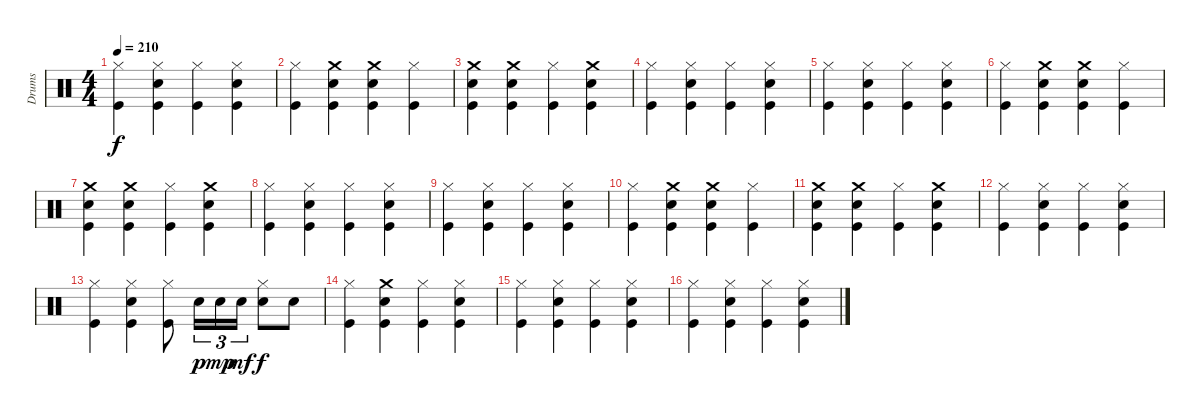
\track ("Drums" "Drums") {instrument percussion}
\staff {score}
\articulation defaults
\ts (4 4)
\tempo 210
\clef neutral
\ks c
("Hi-Hat (closed)" "Kick (hit)").4{dy f} ("Hi-Hat (closed)" "Snare (hit) 2" "Kick (hit)").4 ("Hi-Hat (closed)" "Kick (hit)").4 ("Hi-Hat (closed)" "Snare (hit) 2" "Kick (hit)").4 |
("Hi-Hat (closed)" "Kick (hit)").4 ("Crash medium (hit)" "Snare (hit) 2" "Kick (hit)").4 ("Crash medium (hit)" "Snare (hit) 2" "Kick (hit)").4 ("Hi-Hat (closed)" "Kick (hit)").4 |
("Crash medium (hit)" "Snare (hit) 2" "Kick (hit)").4 ("Crash medium (hit)" "Snare (hit) 2" "Kick (hit)").4 ("Hi-Hat (closed)" "Kick (hit)").4 ("Crash medium (hit)" "Snare (hit) 2" "Kick (hit)").4 |
("Hi-Hat (closed)" "Kick (hit)").4 ("Hi-Hat (closed)" "Snare (hit) 2" "Kick (hit)").4 ("Hi-Hat (closed)" "Kick (hit)").4 ("Hi-Hat (closed)" "Snare (hit) 2" "Kick (hit)").4 |
("Hi-Hat (closed)" "Kick (hit)").4 ("Hi-Hat (closed)" "Snare (hit) 2" "Kick (hit)").4 ("Hi-Hat (closed)" "Kick (hit)").4 ("Hi-Hat (closed)" "Snare (hit) 2" "Kick (hit)").4 |
("Hi-Hat (closed)" "Kick (hit)").4 ("Crash medium (hit)" "Snare (hit) 2" "Kick (hit)").4 ("Crash medium (hit)" "Snare (hit) 2" "Kick (hit)").4 ("Hi-Hat (closed)" "Kick (hit)").4 |
("Crash medium (hit)" "Snare (hit) 2" "Kick (hit)").4 ("Crash medium (hit)" "Snare (hit) 2" "Kick (hit)").4 ("Hi-Hat (closed)" "Kick (hit)").4 ("Crash medium (hit)" "Snare (hit) 2" "Kick (hit)").4 |
("Hi-Hat (closed)" "Kick (hit)").4 ("Hi-Hat (closed)" "Snare (hit) 2" "Kick (hit)").4 ("Hi-Hat (closed)" "Kick (hit)").4 ("Hi-Hat (closed)" "Snare (hit) 2" "Kick (hit)").4 |
("Hi-Hat (closed)" "Kick (hit)").4 ("Hi-Hat (closed)" "Snare (hit) 2" "Kick (hit)").4 ("Hi-Hat (closed)" "Kick (hit)").4 ("Hi-Hat (closed)" "Snare (hit) 2" "Kick (hit)").4 |
("Hi-Hat (closed)" "Kick (hit)").4 ("Crash medium (hit)" "Snare (hit) 2" "Kick (hit)").4 ("Crash medium (hit)" "Snare (hit) 2" "Kick (hit)").4 ("Hi-Hat (closed)" "Kick (hit)").4 |
("Crash medium (hit)" "Snare (hit) 2" "Kick (hit)").4 ("Crash medium (hit)" "Snare (hit) 2" "Kick (hit)").4 ("Hi-Hat (closed)" "Kick (hit)").4 ("Crash medium (hit)" "Snare (hit) 2" "Kick (hit)").4 |
("Hi-Hat (closed)" "Kick (hit)").4 ("Hi-Hat (closed)" "Snare (hit) 2" "Kick (hit)").4 ("Hi-Hat (closed)" "Kick (hit)").4 ("Hi-Hat (closed)" "Snare (hit) 2" "Kick (hit)").4 |
("Hi-Hat (closed)" "Kick (hit)").4 ("Hi-Hat (closed)" "Snare (hit) 2" "Kick (hit)").4 ("Hi-Hat (closed)" "Kick (hit)").8 "Snare (hit) 2".16{tu (3 2) dy p} "Snare (hit) 2".16{tu (3 2) dy mp} "Snare (hit) 2".16{tu (3 2) dy mf} ("Hi-Hat (closed)" "Snare (hit) 2").8{dy f} "Snare (hit) 2".8 |
("Hi-Hat (closed)" "Kick (hit)").4 ("Crash medium (hit)" "Snare (hit) 2" "Kick (hit)").4 ("Hi-Hat (closed)" "Kick (hit)").4 ("Hi-Hat (closed)" "Snare (hit) 2" "Kick (hit)").4 |
("Hi-Hat (closed)" "Kick (hit)").4 ("Hi-Hat (closed)" "Snare (hit) 2" "Kick (hit)").4 ("Hi-Hat (closed)" "Kick (hit)").4 ("Hi-Hat (closed)" "Snare (hit) 2" "Kick (hit)").4 |
("Hi-Hat (closed)" "Kick (hit)").4 ("Hi-Hat (closed)" "Snare (hit) 2" "Kick (hit)").4 ("Hi-Hat (closed)" "Kick (hit)").4 ("Hi-Hat (closed)" "Snare (hit) 2" "Kick (hit)").4
